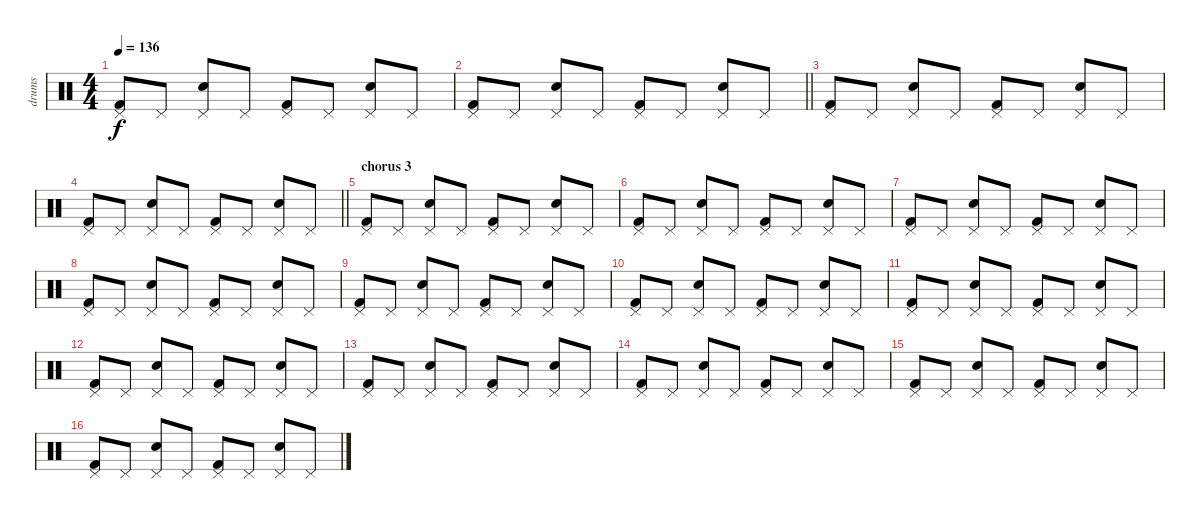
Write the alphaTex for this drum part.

\track ("drums" "drums") {instrument percussion}
\staff {score}
\articulation defaults
\ts (4 4)
\tempo 136
\clef neutral
\ks c
("Kick (hit) 2" "Pedal Hi-Hat (hit)").8{dy f} "Pedal Hi-Hat (hit)".8 ("Electric Snare (hit)" "Pedal Hi-Hat (hit)").8 "Pedal Hi-Hat (hit)".8 ("Kick (hit) 2" "Pedal Hi-Hat (hit)").8 "Pedal Hi-Hat (hit)".8 ("Electric Snare (hit)" "Pedal Hi-Hat (hit)").8 "Pedal Hi-Hat (hit)".8 |
\barLineRight lightlight
("Kick (hit) 2" "Pedal Hi-Hat (hit)").8 "Pedal Hi-Hat (hit)".8 ("Electric Snare (hit)" "Pedal Hi-Hat (hit)").8 "Pedal Hi-Hat (hit)".8 ("Kick (hit) 2" "Pedal Hi-Hat (hit)").8 "Pedal Hi-Hat (hit)".8 ("Electric Snare (hit)" "Pedal Hi-Hat (hit)").8 "Pedal Hi-Hat (hit)".8 |
("Kick (hit) 2" "Pedal Hi-Hat (hit)").8 "Pedal Hi-Hat (hit)".8 ("Electric Snare (hit)" "Pedal Hi-Hat (hit)").8 "Pedal Hi-Hat (hit)".8 ("Kick (hit) 2" "Pedal Hi-Hat (hit)").8 "Pedal Hi-Hat (hit)".8 ("Electric Snare (hit)" "Pedal Hi-Hat (hit)").8 "Pedal Hi-Hat (hit)".8 |
\barLineRight lightlight
("Kick (hit) 2" "Pedal Hi-Hat (hit)").8 "Pedal Hi-Hat (hit)".8 ("Electric Snare (hit)" "Pedal Hi-Hat (hit)").8 "Pedal Hi-Hat (hit)".8 ("Kick (hit) 2" "Pedal Hi-Hat (hit)").8 "Pedal Hi-Hat (hit)".8 ("Electric Snare (hit)" "Pedal Hi-Hat (hit)").8 "Pedal Hi-Hat (hit)".8 |
\section ("" "chorus 3")
("Kick (hit) 2" "Pedal Hi-Hat (hit)").8 "Pedal Hi-Hat (hit)".8 ("Electric Snare (hit)" "Pedal Hi-Hat (hit)").8 "Pedal Hi-Hat (hit)".8 ("Kick (hit) 2" "Pedal Hi-Hat (hit)").8 "Pedal Hi-Hat (hit)".8 ("Electric Snare (hit)" "Pedal Hi-Hat (hit)").8 "Pedal Hi-Hat (hit)".8 |
("Kick (hit) 2" "Pedal Hi-Hat (hit)").8 "Pedal Hi-Hat (hit)".8 ("Electric Snare (hit)" "Pedal Hi-Hat (hit)").8 "Pedal Hi-Hat (hit)".8 ("Kick (hit) 2" "Pedal Hi-Hat (hit)").8 "Pedal Hi-Hat (hit)".8 ("Electric Snare (hit)" "Pedal Hi-Hat (hit)").8 "Pedal Hi-Hat (hit)".8 |
("Kick (hit) 2" "Pedal Hi-Hat (hit)").8 "Pedal Hi-Hat (hit)".8 ("Electric Snare (hit)" "Pedal Hi-Hat (hit)").8 "Pedal Hi-Hat (hit)".8 ("Kick (hit) 2" "Pedal Hi-Hat (hit)").8 "Pedal Hi-Hat (hit)".8 ("Electric Snare (hit)" "Pedal Hi-Hat (hit)").8 "Pedal Hi-Hat (hit)".8 |
("Kick (hit) 2" "Pedal Hi-Hat (hit)").8 "Pedal Hi-Hat (hit)".8 ("Electric Snare (hit)" "Pedal Hi-Hat (hit)").8 "Pedal Hi-Hat (hit)".8 ("Kick (hit) 2" "Pedal Hi-Hat (hit)").8 "Pedal Hi-Hat (hit)".8 ("Electric Snare (hit)" "Pedal Hi-Hat (hit)").8 "Pedal Hi-Hat (hit)".8 |
("Kick (hit) 2" "Pedal Hi-Hat (hit)").8 "Pedal Hi-Hat (hit)".8 ("Electric Snare (hit)" "Pedal Hi-Hat (hit)").8 "Pedal Hi-Hat (hit)".8 ("Kick (hit) 2" "Pedal Hi-Hat (hit)").8 "Pedal Hi-Hat (hit)".8 ("Electric Snare (hit)" "Pedal Hi-Hat (hit)").8 "Pedal Hi-Hat (hit)".8 |
("Kick (hit) 2" "Pedal Hi-Hat (hit)").8 "Pedal Hi-Hat (hit)".8 ("Electric Snare (hit)" "Pedal Hi-Hat (hit)").8 "Pedal Hi-Hat (hit)".8 ("Kick (hit) 2" "Pedal Hi-Hat (hit)").8 "Pedal Hi-Hat (hit)".8 ("Electric Snare (hit)" "Pedal Hi-Hat (hit)").8 "Pedal Hi-Hat (hit)".8 |
("Kick (hit) 2" "Pedal Hi-Hat (hit)").8 "Pedal Hi-Hat (hit)".8 ("Electric Snare (hit)" "Pedal Hi-Hat (hit)").8 "Pedal Hi-Hat (hit)".8 ("Kick (hit) 2" "Pedal Hi-Hat (hit)").8 "Pedal Hi-Hat (hit)".8 ("Electric Snare (hit)" "Pedal Hi-Hat (hit)").8 "Pedal Hi-Hat (hit)".8 |
("Kick (hit) 2" "Pedal Hi-Hat (hit)").8 "Pedal Hi-Hat (hit)".8 ("Electric Snare (hit)" "Pedal Hi-Hat (hit)").8 "Pedal Hi-Hat (hit)".8 ("Kick (hit) 2" "Pedal Hi-Hat (hit)").8 "Pedal Hi-Hat (hit)".8 ("Electric Snare (hit)" "Pedal Hi-Hat (hit)").8 "Pedal Hi-Hat (hit)".8 |
("Kick (hit) 2" "Pedal Hi-Hat (hit)").8 "Pedal Hi-Hat (hit)".8 ("Electric Snare (hit)" "Pedal Hi-Hat (hit)").8 "Pedal Hi-Hat (hit)".8 ("Kick (hit) 2" "Pedal Hi-Hat (hit)").8 "Pedal Hi-Hat (hit)".8 ("Electric Snare (hit)" "Pedal Hi-Hat (hit)").8 "Pedal Hi-Hat (hit)".8 |
("Kick (hit) 2" "Pedal Hi-Hat (hit)").8 "Pedal Hi-Hat (hit)".8 ("Electric Snare (hit)" "Pedal Hi-Hat (hit)").8 "Pedal Hi-Hat (hit)".8 ("Kick (hit) 2" "Pedal Hi-Hat (hit)").8 "Pedal Hi-Hat (hit)".8 ("Electric Snare (hit)" "Pedal Hi-Hat (hit)").8 "Pedal Hi-Hat (hit)".8 |
("Kick (hit) 2" "Pedal Hi-Hat (hit)").8 "Pedal Hi-Hat (hit)".8 ("Electric Snare (hit)" "Pedal Hi-Hat (hit)").8 "Pedal Hi-Hat (hit)".8 ("Kick (hit) 2" "Pedal Hi-Hat (hit)").8 "Pedal Hi-Hat (hit)".8 ("Electric Snare (hit)" "Pedal Hi-Hat (hit)").8 "Pedal Hi-Hat (hit)".8 |
("Kick (hit) 2" "Pedal Hi-Hat (hit)").8 "Pedal Hi-Hat (hit)".8 ("Electric Snare (hit)" "Pedal Hi-Hat (hit)").8 "Pedal Hi-Hat (hit)".8 ("Kick (hit) 2" "Pedal Hi-Hat (hit)").8 "Pedal Hi-Hat (hit)".8 ("Electric Snare (hit)" "Pedal Hi-Hat (hit)").8 "Pedal Hi-Hat (hit)".8
